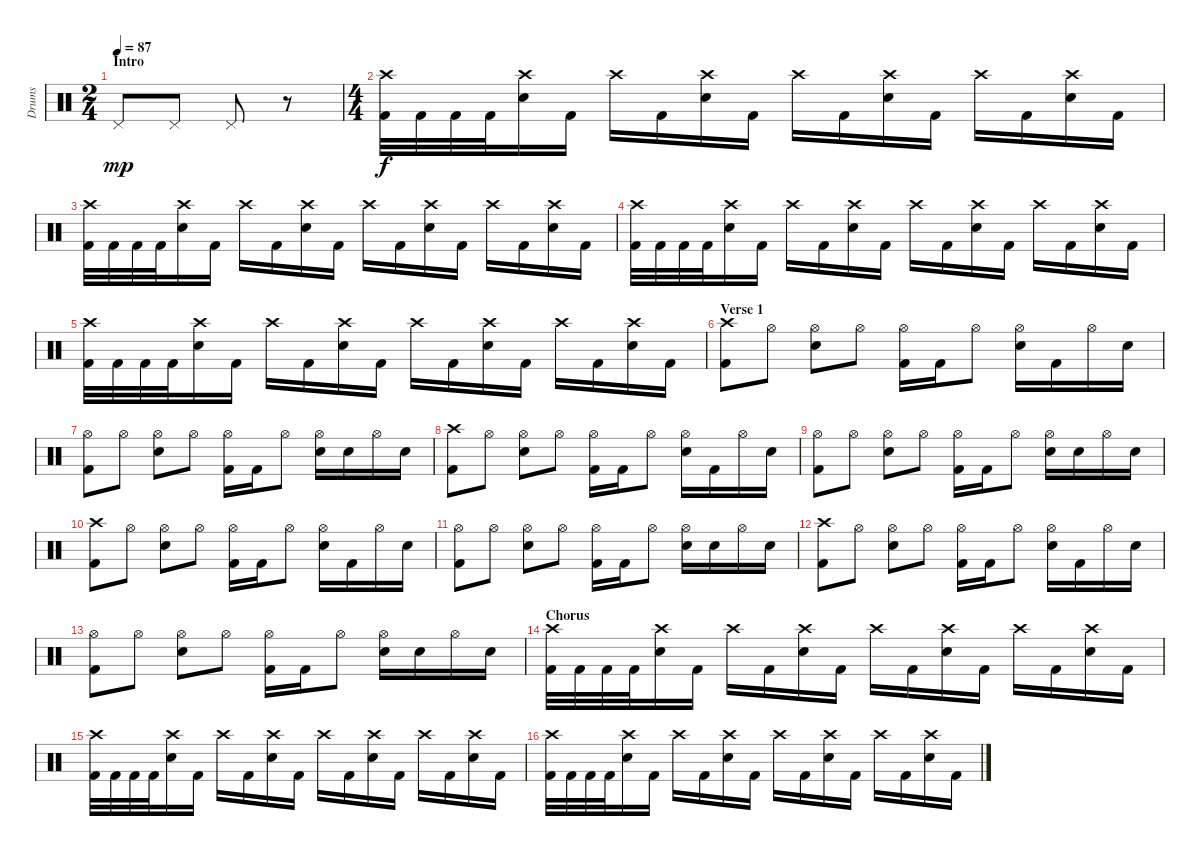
\track ("Drums" "Drums") {instrument percussion}
\staff {score}
\articulation defaults
\ts (2 4)
\section ("" "Intro")
\tempo 87
\clef neutral
\ks c "Pedal Hi-Hat (hit)".8{dy mp} "Pedal Hi-Hat (hit)".8 "Pedal Hi-Hat (hit)".8
r.8 |
\ts (4 4)
("Crash high (hit)" "Kick (hit) 2").32{dy f} "Kick (hit) 2".32 "Kick (hit) 2".32 "Kick (hit) 2".32 ("Crash high (hit)" "Electric Snare (hit)").16 "Kick (hit) 2".16 "Crash high (hit)".16 "Kick (hit) 2".16 ("Crash high (hit)" "Electric Snare (hit)").16 "Kick (hit) 2".16 "Crash high (hit)".16 "Kick (hit) 2".16 ("Crash high (hit)" "Electric Snare (hit)").16 "Kick (hit) 2".16 "Crash high (hit)".16 "Kick (hit) 2".16 ("Crash high (hit)" "Electric Snare (hit)").16 "Kick (hit) 2".16 |
("Crash high (hit)" "Kick (hit) 2").32 "Kick (hit) 2".32 "Kick (hit) 2".32 "Kick (hit) 2".32 ("Crash high (hit)" "Electric Snare (hit)").16 "Kick (hit) 2".16 "Crash high (hit)".16 "Kick (hit) 2".16 ("Crash high (hit)" "Electric Snare (hit)").16 "Kick (hit) 2".16 "Crash high (hit)".16 "Kick (hit) 2".16 ("Crash high (hit)" "Electric Snare (hit)").16 "Kick (hit) 2".16 "Crash high (hit)".16 "Kick (hit) 2".16 ("Crash high (hit)" "Electric Snare (hit)").16 "Kick (hit) 2".16 |
("Crash high (hit)" "Kick (hit) 2").32 "Kick (hit) 2".32 "Kick (hit) 2".32 "Kick (hit) 2".32 ("Crash high (hit)" "Electric Snare (hit)").16 "Kick (hit) 2".16 "Crash high (hit)".16 "Kick (hit) 2".16 ("Crash high (hit)" "Electric Snare (hit)").16 "Kick (hit) 2".16 "Crash high (hit)".16 "Kick (hit) 2".16 ("Crash high (hit)" "Electric Snare (hit)").16 "Kick (hit) 2".16 "Crash high (hit)".16 "Kick (hit) 2".16 ("Crash high (hit)" "Electric Snare (hit)").16 "Kick (hit) 2".16 |
("Crash high (hit)" "Kick (hit) 2").32 "Kick (hit) 2".32 "Kick (hit) 2".32 "Kick (hit) 2".32 ("Crash high (hit)" "Electric Snare (hit)").16 "Kick (hit) 2".16 "Crash high (hit)".16 "Kick (hit) 2".16 ("Crash high (hit)" "Electric Snare (hit)").16 "Kick (hit) 2".16 "Crash high (hit)".16 "Kick (hit) 2".16 ("Crash high (hit)" "Electric Snare (hit)").16 "Kick (hit) 2".16 "Crash high (hit)".16 "Kick (hit) 2".16 ("Crash high (hit)" "Electric Snare (hit)").16 "Kick (hit) 2".16 |
\section ("" "Verse 1")
("Crash high (hit)" "Kick (hit) 2").8 "Hi-Hat (open)".8 ("Hi-Hat (open)" "Electric Snare (hit)").8 "Hi-Hat (open)".8 ("Hi-Hat (open)" "Kick (hit) 2").16 "Kick (hit) 2".16 "Hi-Hat (open)".8 ("Hi-Hat (open)" "Electric Snare (hit)").16 "Kick (hit) 2".16 "Hi-Hat (open)".16 "Electric Snare (hit)".16 |
("Hi-Hat (open)" "Kick (hit) 2").8 "Hi-Hat (open)".8 ("Hi-Hat (open)" "Electric Snare (hit)").8 "Hi-Hat (open)".8 ("Hi-Hat (open)" "Kick (hit) 2").16 "Kick (hit) 2".16 "Hi-Hat (open)".8 ("Hi-Hat (open)" "Electric Snare (hit)").16 "Electric Snare (hit)".16 "Hi-Hat (open)".16 "Electric Snare (hit)".16 |
("Crash high (hit)" "Kick (hit) 2").8 "Hi-Hat (open)".8 ("Hi-Hat (open)" "Electric Snare (hit)").8 "Hi-Hat (open)".8 ("Hi-Hat (open)" "Kick (hit) 2").16 "Kick (hit) 2".16 "Hi-Hat (open)".8 ("Hi-Hat (open)" "Electric Snare (hit)").16 "Kick (hit) 2".16 "Hi-Hat (open)".16 "Electric Snare (hit)".16 |
("Hi-Hat (open)" "Kick (hit) 2").8 "Hi-Hat (open)".8 ("Hi-Hat (open)" "Electric Snare (hit)").8 "Hi-Hat (open)".8 ("Hi-Hat (open)" "Kick (hit) 2").16 "Kick (hit) 2".16 "Hi-Hat (open)".8 ("Hi-Hat (open)" "Electric Snare (hit)").16 "Electric Snare (hit)".16 "Hi-Hat (open)".16 "Electric Snare (hit)".16 |
("Crash high (hit)" "Kick (hit) 2").8 "Hi-Hat (open)".8 ("Hi-Hat (open)" "Electric Snare (hit)").8 "Hi-Hat (open)".8 ("Hi-Hat (open)" "Kick (hit) 2").16 "Kick (hit) 2".16 "Hi-Hat (open)".8 ("Hi-Hat (open)" "Electric Snare (hit)").16 "Kick (hit) 2".16 "Hi-Hat (open)".16 "Electric Snare (hit)".16 |
("Hi-Hat (open)" "Kick (hit) 2").8 "Hi-Hat (open)".8 ("Hi-Hat (open)" "Electric Snare (hit)").8 "Hi-Hat (open)".8 ("Hi-Hat (open)" "Kick (hit) 2").16 "Kick (hit) 2".16 "Hi-Hat (open)".8 ("Hi-Hat (open)" "Electric Snare (hit)").16 "Electric Snare (hit)".16 "Hi-Hat (open)".16 "Electric Snare (hit)".16 |
("Crash high (hit)" "Kick (hit) 2").8 "Hi-Hat (open)".8 ("Hi-Hat (open)" "Electric Snare (hit)").8 "Hi-Hat (open)".8 ("Hi-Hat (open)" "Kick (hit) 2").16 "Kick (hit) 2".16 "Hi-Hat (open)".8 ("Hi-Hat (open)" "Electric Snare (hit)").16 "Kick (hit) 2".16 "Hi-Hat (open)".16 "Electric Snare (hit)".16 |
("Hi-Hat (open)" "Kick (hit) 2").8 "Hi-Hat (open)".8 ("Hi-Hat (open)" "Electric Snare (hit)").8 "Hi-Hat (open)".8 ("Hi-Hat (open)" "Kick (hit) 2").16 "Kick (hit) 2".16 "Hi-Hat (open)".8 ("Hi-Hat (open)" "Electric Snare (hit)").16 "Electric Snare (hit)".16 "Hi-Hat (open)".16 "Electric Snare (hit)".16 |
\section ("" "Chorus")
("Crash high (hit)" "Kick (hit) 2").32 "Kick (hit) 2".32 "Kick (hit) 2".32 "Kick (hit) 2".32 ("Crash high (hit)" "Electric Snare (hit)").16 "Kick (hit) 2".16 "Crash high (hit)".16 "Kick (hit) 2".16 ("Crash high (hit)" "Electric Snare (hit)").16 "Kick (hit) 2".16 "Crash high (hit)".16 "Kick (hit) 2".16 ("Crash high (hit)" "Electric Snare (hit)").16 "Kick (hit) 2".16 "Crash high (hit)".16 "Kick (hit) 2".16 ("Crash high (hit)" "Electric Snare (hit)").16 "Kick (hit) 2".16 |
("Crash high (hit)" "Kick (hit) 2").32 "Kick (hit) 2".32 "Kick (hit) 2".32 "Kick (hit) 2".32 ("Crash high (hit)" "Electric Snare (hit)").16 "Kick (hit) 2".16 "Crash high (hit)".16 "Kick (hit) 2".16 ("Crash high (hit)" "Electric Snare (hit)").16 "Kick (hit) 2".16 "Crash high (hit)".16 "Kick (hit) 2".16 ("Crash high (hit)" "Electric Snare (hit)").16 "Kick (hit) 2".16 "Crash high (hit)".16 "Kick (hit) 2".16 ("Crash high (hit)" "Electric Snare (hit)").16 "Kick (hit) 2".16 |
("Crash high (hit)" "Kick (hit) 2").32 "Kick (hit) 2".32 "Kick (hit) 2".32 "Kick (hit) 2".32 ("Crash high (hit)" "Electric Snare (hit)").16 "Kick (hit) 2".16 "Crash high (hit)".16 "Kick (hit) 2".16 ("Crash high (hit)" "Electric Snare (hit)").16 "Kick (hit) 2".16 "Crash high (hit)".16 "Kick (hit) 2".16 ("Crash high (hit)" "Electric Snare (hit)").16 "Kick (hit) 2".16 "Crash high (hit)".16 "Kick (hit) 2".16 ("Crash high (hit)" "Electric Snare (hit)").16 "Kick (hit) 2".16
